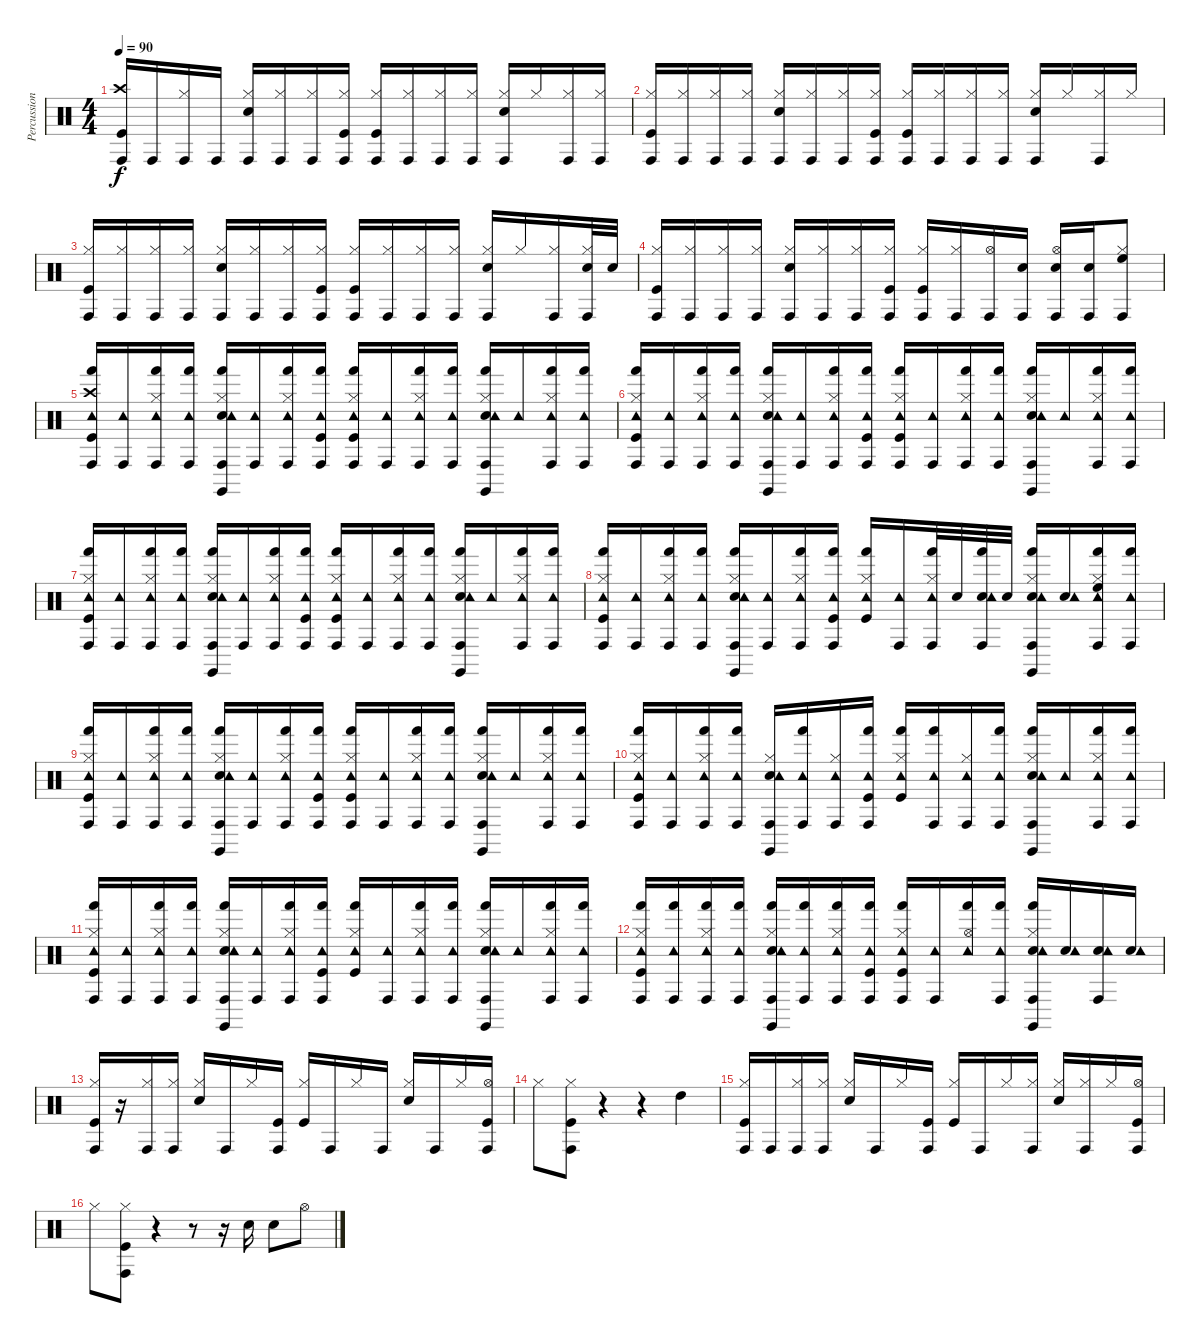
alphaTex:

\track ("Percussions" "Percussion") {instrument percussion}
\staff {score}
\articulation defaults
\ts (4 4)
\tempo 90
\clef neutral
\ks c
("Crash high (hit)" "Kick (hit)" "Conga high (hit)").16{dy f} "Conga high (hit)".16 ("Hi-Hat (closed)" "Conga high (hit)").16 "Conga high (hit)".16 ("Hi-Hat (closed)" "Electric Snare (hit)" "Conga high (hit)").16 ("Hi-Hat (closed)" "Conga high (hit)").16 ("Hi-Hat (closed)" "Conga high (hit)").16 ("Hi-Hat (closed)" "Kick (hit)" "Conga high (hit)").16 ("Hi-Hat (closed)" "Kick (hit)" "Conga high (hit)").16 ("Hi-Hat (closed)" "Conga high (hit)").16 ("Hi-Hat (closed)" "Conga high (hit)").16 ("Hi-Hat (closed)" "Conga high (hit)").16 ("Hi-Hat (closed)" "Electric Snare (hit)" "Conga high (hit)").16 "Hi-Hat (closed)".16 ("Hi-Hat (closed)" "Conga high (hit)").16 ("Hi-Hat (closed)" "Conga high (hit)").16 |
("Hi-Hat (closed)" "Kick (hit)" "Conga high (hit)").16 ("Hi-Hat (closed)" "Conga high (hit)").16 ("Hi-Hat (closed)" "Conga high (hit)").16 ("Hi-Hat (closed)" "Conga high (hit)").16 ("Hi-Hat (closed)" "Electric Snare (hit)" "Conga high (hit)").16 ("Hi-Hat (closed)" "Conga high (hit)").16 ("Hi-Hat (closed)" "Conga high (hit)").16 ("Hi-Hat (closed)" "Kick (hit)" "Conga high (hit)").16 ("Hi-Hat (closed)" "Kick (hit)" "Conga high (hit)").16 ("Hi-Hat (closed)" "Conga high (hit)").16 ("Hi-Hat (closed)" "Conga high (hit)").16 ("Hi-Hat (closed)" "Conga high (hit)").16 ("Hi-Hat (closed)" "Electric Snare (hit)" "Conga high (hit)").16 "Hi-Hat (closed)".16 ("Hi-Hat (closed)" "Conga high (hit)").16 "Hi-Hat (closed)".16 |
("Hi-Hat (closed)" "Kick (hit)" "Conga high (hit)").16 ("Hi-Hat (closed)" "Conga high (hit)").16 ("Hi-Hat (closed)" "Conga high (hit)").16 ("Hi-Hat (closed)" "Conga high (hit)").16 ("Hi-Hat (closed)" "Electric Snare (hit)" "Conga high (hit)").16 ("Hi-Hat (closed)" "Conga high (hit)").16 ("Hi-Hat (closed)" "Conga high (hit)").16 ("Hi-Hat (closed)" "Kick (hit)" "Conga high (hit)").16 ("Hi-Hat (closed)" "Kick (hit)" "Conga high (hit)").16 ("Hi-Hat (closed)" "Conga high (hit)").16 ("Hi-Hat (closed)" "Conga high (hit)").16 ("Hi-Hat (closed)" "Conga high (hit)").16 ("Hi-Hat (closed)" "Electric Snare (hit)" "Conga high (hit)").16 "Hi-Hat (closed)".16 ("Hi-Hat (closed)" "Conga high (hit)").16 ("Hi-Hat (closed)" "Electric Snare (hit)" "Conga high (hit)").32 "Electric Snare (hit)".32 |
("Hi-Hat (closed)" "Kick (hit)" "Conga high (hit)").16 ("Hi-Hat (closed)" "Conga high (hit)").16 ("Hi-Hat (closed)" "Conga high (hit)").16 ("Hi-Hat (closed)" "Conga high (hit)").16 ("Hi-Hat (closed)" "Electric Snare (hit)" "Conga high (hit)").16 ("Hi-Hat (closed)" "Conga high (hit)").16 ("Hi-Hat (closed)" "Conga high (hit)").16 ("Hi-Hat (closed)" "Kick (hit)" "Conga high (hit)").16 ("Hi-Hat (closed)" "Kick (hit)" "Conga high (hit)").16 ("Hi-Hat (closed)" "Conga high (hit)").16 ("Hi-Hat (open)" "Conga high (hit)").16 ("Electric Snare (hit)" "Conga high (hit)").16 ("Hi-Hat (open)" "Electric Snare (hit)" "Conga high (hit)").16 ("Electric Snare (hit)" "Conga high (hit)").16 ("Hi-Hat (closed)" "High Floor Tom (hit)" "Conga high (hit)").8 |
("Crash high (hit)" "Kick (hit)" "Hand (hit)" "Tambourine (hit)" "Conga high (hit)").16 ("Tambourine (hit)" "Conga high (hit)").16 ("Hi-Hat (closed)" "Hand (hit)" "Tambourine (hit)" "Conga high (hit)").16 ("Hand (hit)" "Tambourine (hit)" "Conga high (hit)").16 ("Hi-Hat (closed)" "Electric Snare (hit)" "Claves (hit)" "Hand (hit)" "Tambourine (hit)" "Conga high (hit)").16 ("Tambourine (hit)" "Conga high (hit)").16 ("Hi-Hat (closed)" "Hand (hit)" "Tambourine (hit)" "Conga high (hit)").16 ("Kick (hit)" "Hand (hit)" "Tambourine (hit)" "Conga high (hit)").16 ("Hi-Hat (closed)" "Kick (hit)" "Hand (hit)" "Tambourine (hit)" "Conga high (hit)").16 ("Tambourine (hit)" "Conga high (hit)").16 ("Hi-Hat (closed)" "Hand (hit)" "Tambourine (hit)" "Conga high (hit)").16 ("Hand (hit)" "Tambourine (hit)" "Conga high (hit)").16 ("Hi-Hat (closed)" "Electric Snare (hit)" "Claves (hit)" "Hand (hit)" "Tambourine (hit)" "Conga high (hit)").16 "Tambourine (hit)".16 ("Hi-Hat (closed)" "Hand (hit)" "Tambourine (hit)" "Conga high (hit)").16 ("Hand (hit)" "Tambourine (hit)" "Conga high (hit)").16 |
("Hi-Hat (closed)" "Kick (hit)" "Hand (hit)" "Tambourine (hit)" "Conga high (hit)").16 ("Tambourine (hit)" "Conga high (hit)").16 ("Hi-Hat (closed)" "Hand (hit)" "Tambourine (hit)" "Conga high (hit)").16 ("Hand (hit)" "Tambourine (hit)" "Conga high (hit)").16 ("Hi-Hat (closed)" "Electric Snare (hit)" "Claves (hit)" "Hand (hit)" "Tambourine (hit)" "Conga high (hit)").16 ("Tambourine (hit)" "Conga high (hit)").16 ("Hi-Hat (closed)" "Hand (hit)" "Tambourine (hit)" "Conga high (hit)").16 ("Kick (hit)" "Hand (hit)" "Tambourine (hit)" "Conga high (hit)").16 ("Hi-Hat (closed)" "Kick (hit)" "Hand (hit)" "Tambourine (hit)" "Conga high (hit)").16 ("Tambourine (hit)" "Conga high (hit)").16 ("Hi-Hat (closed)" "Hand (hit)" "Tambourine (hit)" "Conga high (hit)").16 ("Hand (hit)" "Tambourine (hit)" "Conga high (hit)").16 ("Hi-Hat (closed)" "Electric Snare (hit)" "Claves (hit)" "Hand (hit)" "Tambourine (hit)" "Conga high (hit)").16 "Tambourine (hit)".16 ("Hi-Hat (closed)" "Hand (hit)" "Tambourine (hit)" "Conga high (hit)").16 ("Hand (hit)" "Tambourine (hit)" "Conga high (hit)").16 |
("Hi-Hat (closed)" "Kick (hit)" "Hand (hit)" "Tambourine (hit)" "Conga high (hit)").16 ("Tambourine (hit)" "Conga high (hit)").16 ("Hi-Hat (closed)" "Hand (hit)" "Tambourine (hit)" "Conga high (hit)").16 ("Hand (hit)" "Tambourine (hit)" "Conga high (hit)").16 ("Hi-Hat (closed)" "Electric Snare (hit)" "Claves (hit)" "Hand (hit)" "Tambourine (hit)" "Conga high (hit)").16 ("Tambourine (hit)" "Conga high (hit)").16 ("Hi-Hat (closed)" "Hand (hit)" "Tambourine (hit)" "Conga high (hit)").16 ("Kick (hit)" "Hand (hit)" "Tambourine (hit)" "Conga high (hit)").16 ("Hi-Hat (closed)" "Kick (hit)" "Hand (hit)" "Tambourine (hit)" "Conga high (hit)").16 ("Tambourine (hit)" "Conga high (hit)").16 ("Hi-Hat (closed)" "Hand (hit)" "Tambourine (hit)" "Conga high (hit)").16 ("Hand (hit)" "Tambourine (hit)" "Conga high (hit)").16 ("Hi-Hat (closed)" "Electric Snare (hit)" "Claves (hit)" "Hand (hit)" "Tambourine (hit)" "Conga high (hit)").16 "Tambourine (hit)".16 ("Hi-Hat (closed)" "Hand (hit)" "Tambourine (hit)" "Conga high (hit)").16 ("Hand (hit)" "Tambourine (hit)" "Conga high (hit)").16 |
("Hi-Hat (closed)" "Kick (hit)" "Hand (hit)" "Tambourine (hit)" "Conga high (hit)").16 ("Tambourine (hit)" "Conga high (hit)").16 ("Hi-Hat (closed)" "Hand (hit)" "Tambourine (hit)" "Conga high (hit)").16 ("Hand (hit)" "Tambourine (hit)" "Conga high (hit)").16 ("Hi-Hat (closed)" "Electric Snare (hit)" "Claves (hit)" "Hand (hit)" "Tambourine (hit)" "Conga high (hit)").16 ("Tambourine (hit)" "Conga high (hit)").16 ("Hi-Hat (closed)" "Hand (hit)" "Tambourine (hit)" "Conga high (hit)").16 ("Kick (hit)" "Hand (hit)" "Tambourine (hit)" "Conga high (hit)").16 ("Hi-Hat (closed)" "Kick (hit)" "Hand (hit)" "Tambourine (hit)").16 ("Tambourine (hit)" "Conga high (hit)").16 ("Hi-Hat (closed)" "Hand (hit)" "Tambourine (hit)" "Conga high (hit)").32 "Electric Snare (hit)".32 ("Electric Snare (hit)" "Hand (hit)" "Tambourine (hit)" "Conga high (hit)").32 "Electric Snare (hit)".32 ("Hi-Hat (closed)" "Electric Snare (hit)" "Claves (hit)" "Hand (hit)" "Tambourine (hit)" "Conga high (hit)").16 ("Electric Snare (hit)" "Tambourine (hit)").16 ("Hi-Hat (closed)" "High Floor Tom (hit)" "Hand (hit)" "Tambourine (hit)" "Conga high (hit)").16 ("Hand (hit)" "Tambourine (hit)" "Conga high (hit)").16 |
("Hi-Hat (closed)" "Kick (hit)" "Hand (hit)" "Tambourine (hit)" "Conga high (hit)").16 ("Tambourine (hit)" "Conga high (hit)").16 ("Hi-Hat (closed)" "Hand (hit)" "Tambourine (hit)" "Conga high (hit)").16 ("Hand (hit)" "Tambourine (hit)" "Conga high (hit)").16 ("Hi-Hat (closed)" "Electric Snare (hit)" "Claves (hit)" "Hand (hit)" "Tambourine (hit)" "Conga high (hit)").16 ("Tambourine (hit)" "Conga high (hit)").16 ("Hi-Hat (closed)" "Hand (hit)" "Tambourine (hit)" "Conga high (hit)").16 ("Kick (hit)" "Hand (hit)" "Tambourine (hit)" "Conga high (hit)").16 ("Hi-Hat (closed)" "Kick (hit)" "Hand (hit)" "Tambourine (hit)" "Conga high (hit)").16 ("Tambourine (hit)" "Conga high (hit)").16 ("Hi-Hat (closed)" "Hand (hit)" "Tambourine (hit)" "Conga high (hit)").16 ("Hand (hit)" "Tambourine (hit)" "Conga high (hit)").16 ("Hi-Hat (closed)" "Electric Snare (hit)" "Claves (hit)" "Hand (hit)" "Tambourine (hit)" "Conga high (hit)").16 "Tambourine (hit)".16 ("Hi-Hat (closed)" "Hand (hit)" "Tambourine (hit)" "Conga high (hit)").16 ("Hand (hit)" "Tambourine (hit)" "Conga high (hit)").16 |
("Hi-Hat (closed)" "Kick (hit)" "Hand (hit)" "Tambourine (hit)" "Conga high (hit)").16 ("Tambourine (hit)" "Conga high (hit)").16 ("Hi-Hat (closed)" "Hand (hit)" "Tambourine (hit)" "Conga high (hit)").16 ("Hand (hit)" "Tambourine (hit)" "Conga high (hit)").16 ("Hi-Hat (closed)" "Electric Snare (hit)" "Claves (hit)" "Tambourine (hit)" "Conga high (hit)").16 ("Hand (hit)" "Tambourine (hit)" "Conga high (hit)").16 ("Hi-Hat (closed)" "Tambourine (hit)" "Conga high (hit)").16 ("Kick (hit)" "Hand (hit)" "Tambourine (hit)" "Conga high (hit)").16 ("Hi-Hat (closed)" "Kick (hit)" "Hand (hit)" "Tambourine (hit)").16 ("Hand (hit)" "Tambourine (hit)" "Conga high (hit)").16 ("Hi-Hat (closed)" "Tambourine (hit)" "Conga high (hit)").16 ("Hand (hit)" "Tambourine (hit)" "Conga high (hit)").16 ("Hi-Hat (closed)" "Electric Snare (hit)" "Claves (hit)" "Hand (hit)" "Tambourine (hit)" "Conga high (hit)").16 "Tambourine (hit)".16 ("Hi-Hat (closed)" "Hand (hit)" "Tambourine (hit)" "Conga high (hit)").16 ("Hand (hit)" "Tambourine (hit)" "Conga high (hit)").16 |
("Hi-Hat (closed)" "Kick (hit)" "Hand (hit)" "Tambourine (hit)" "Conga high (hit)").16 ("Tambourine (hit)" "Conga high (hit)").16 ("Hi-Hat (closed)" "Hand (hit)" "Tambourine (hit)" "Conga high (hit)").16 ("Hand (hit)" "Tambourine (hit)" "Conga high (hit)").16 ("Hi-Hat (closed)" "Electric Snare (hit)" "Claves (hit)" "Hand (hit)" "Tambourine (hit)" "Conga high (hit)").16 ("Tambourine (hit)" "Conga high (hit)").16 ("Hi-Hat (closed)" "Hand (hit)" "Tambourine (hit)" "Conga high (hit)").16 ("Kick (hit)" "Hand (hit)" "Tambourine (hit)" "Conga high (hit)").16 ("Hi-Hat (closed)" "Kick (hit)" "Hand (hit)" "Tambourine (hit)").16 ("Tambourine (hit)" "Conga high (hit)").16 ("Hi-Hat (closed)" "Hand (hit)" "Tambourine (hit)" "Conga high (hit)").16 ("Hand (hit)" "Tambourine (hit)" "Conga high (hit)").16 ("Hi-Hat (closed)" "Electric Snare (hit)" "Claves (hit)" "Hand (hit)" "Tambourine (hit)" "Conga high (hit)").16 "Tambourine (hit)".16 ("Hi-Hat (closed)" "Hand (hit)" "Tambourine (hit)" "Conga high (hit)").16 ("Hand (hit)" "Tambourine (hit)" "Conga high (hit)").16 |
("Hi-Hat (closed)" "Kick (hit)" "Hand (hit)" "Tambourine (hit)" "Conga high (hit)").16 ("Hand (hit)" "Tambourine (hit)" "Conga high (hit)").16 ("Hi-Hat (closed)" "Hand (hit)" "Tambourine (hit)" "Conga high (hit)").16 ("Hand (hit)" "Tambourine (hit)" "Conga high (hit)").16 ("Hi-Hat (closed)" "Electric Snare (hit)" "Claves (hit)" "Hand (hit)" "Tambourine (hit)" "Conga high (hit)").16 ("Hand (hit)" "Tambourine (hit)" "Conga high (hit)").16 ("Hi-Hat (closed)" "Hand (hit)" "Tambourine (hit)" "Conga high (hit)").16 ("Kick (hit)" "Hand (hit)" "Tambourine (hit)" "Conga high (hit)").16 ("Hi-Hat (closed)" "Kick (hit)" "Hand (hit)" "Tambourine (hit)" "Conga high (hit)").16 ("Tambourine (hit)" "Conga high (hit)").16 ("Hi-Hat (open)" "Hand (hit)" "Tambourine (hit)").16 ("Hand (hit)" "Tambourine (hit)" "Conga high (hit)").16 ("Hi-Hat (closed)" "Electric Snare (hit)" "Claves (hit)" "Hand (hit)" "Tambourine (hit)" "Conga high (hit)").16 ("Electric Snare (hit)" "Tambourine (hit)").16 ("Electric Snare (hit)" "Tambourine (hit)" "Conga high (hit)").16 ("Electric Snare (hit)" "Tambourine (hit)").16 |
("Hi-Hat (closed)" "Kick (hit)" "Conga high (hit)").16 r.16 ("Hi-Hat (closed)" "Conga high (hit)").16 ("Hi-Hat (closed)" "Conga high (hit)").16 ("Hi-Hat (closed)" "Electric Snare (hit)").16 "Conga high (hit)".16 "Hi-Hat (closed)".16 ("Kick (hit)" "Conga high (hit)").16 ("Hi-Hat (closed)" "Kick (hit)").16 "Conga high (hit)".16 "Hi-Hat (closed)".16 "Conga high (hit)".16 ("Hi-Hat (closed)" "Electric Snare (hit)").16 "Conga high (hit)".16 "Hi-Hat (closed)".16 ("Hi-Hat (open)" "Kick (hit)" "Conga high (hit)").16 |
"Hi-Hat (closed)".8 ("Hi-Hat (closed)" "Kick (hit)" "Conga high (hit)").8 r.4 r.4 "High Tom (hit)".4 |
("Hi-Hat (closed)" "Kick (hit)" "Conga high (hit)").16 "Conga high (hit)".16 ("Hi-Hat (closed)" "Conga high (hit)").16 ("Hi-Hat (closed)" "Conga high (hit)").16 ("Hi-Hat (closed)" "Electric Snare (hit)").16 "Conga high (hit)".16 "Hi-Hat (closed)".16 ("Kick (hit)" "Conga high (hit)").16 ("Hi-Hat (closed)" "Kick (hit)").16 "Conga high (hit)".16 "Hi-Hat (closed)".16 ("Hi-Hat (closed)" "Conga high (hit)").16 ("Hi-Hat (closed)" "Electric Snare (hit)").16 ("Hi-Hat (closed)" "Conga high (hit)").16 "Hi-Hat (closed)".16 ("Hi-Hat (open)" "Kick (hit)" "Conga high (hit)").16 |
"Hi-Hat (closed)".8 ("Hi-Hat (closed)" "Kick (hit)" "Conga high (hit)").8 r.4 r.8 r.16 "Electric Snare (hit)".16 "Electric Snare (hit)".8 "Hi-Hat (open)".8
